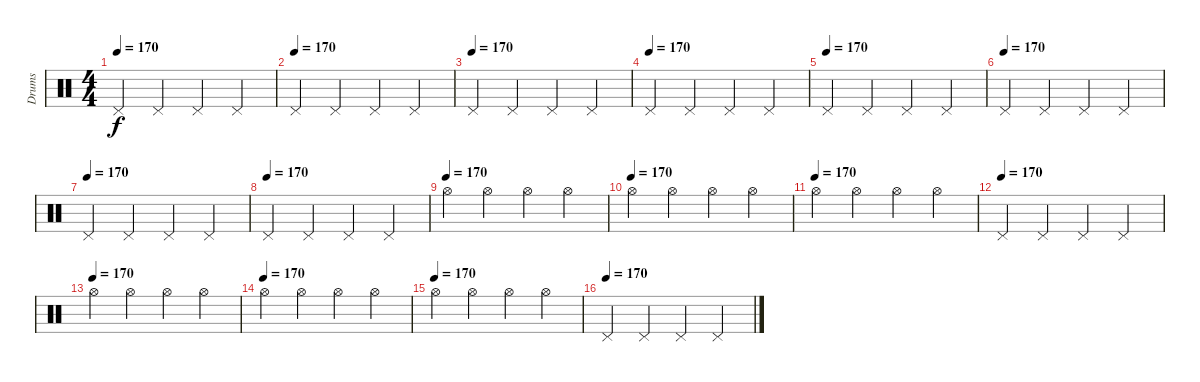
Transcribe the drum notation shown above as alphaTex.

\track ("Drums" "Drums") {instrument percussion}
\staff {score}
\articulation defaults
\ts (4 4)
\tempo 170
\clef neutral
\ks c "Pedal Hi-Hat (hit)".4{dy f} "Pedal Hi-Hat (hit)".4 "Pedal Hi-Hat (hit)".4 "Pedal Hi-Hat (hit)".4
|
\tempo (170)
"Pedal Hi-Hat (hit)".4 "Pedal Hi-Hat (hit)".4 "Pedal Hi-Hat (hit)".4 "Pedal Hi-Hat (hit)".4 |
\tempo (170)
"Pedal Hi-Hat (hit)".4 "Pedal Hi-Hat (hit)".4 "Pedal Hi-Hat (hit)".4 "Pedal Hi-Hat (hit)".4 |
\tempo (170)
"Pedal Hi-Hat (hit)".4 "Pedal Hi-Hat (hit)".4 "Pedal Hi-Hat (hit)".4 "Pedal Hi-Hat (hit)".4 |
\tempo (170)
"Pedal Hi-Hat (hit)".4 "Pedal Hi-Hat (hit)".4 "Pedal Hi-Hat (hit)".4 "Pedal Hi-Hat (hit)".4 |
\tempo (170)
"Pedal Hi-Hat (hit)".4 "Pedal Hi-Hat (hit)".4 "Pedal Hi-Hat (hit)".4 "Pedal Hi-Hat (hit)".4 |
\tempo (170)
"Pedal Hi-Hat (hit)".4 "Pedal Hi-Hat (hit)".4 "Pedal Hi-Hat (hit)".4 "Pedal Hi-Hat (hit)".4 |
\tempo (170)
"Pedal Hi-Hat (hit)".4 "Pedal Hi-Hat (hit)".4 "Pedal Hi-Hat (hit)".4 "Pedal Hi-Hat (hit)".4 |
\tempo (170)
"Hi-Hat (open)".4 "Hi-Hat (open)".4 "Hi-Hat (open)".4 "Hi-Hat (open)".4 |
\tempo (170)
"Hi-Hat (open)".4 "Hi-Hat (open)".4 "Hi-Hat (open)".4 "Hi-Hat (open)".4 |
\tempo (170)
"Hi-Hat (open)".4 "Hi-Hat (open)".4 "Hi-Hat (open)".4 "Hi-Hat (open)".4 |
\tempo (170)
"Pedal Hi-Hat (hit)".4 "Pedal Hi-Hat (hit)".4 "Pedal Hi-Hat (hit)".4 "Pedal Hi-Hat (hit)".4 |
\tempo (170)
"Hi-Hat (open)".4 "Hi-Hat (open)".4 "Hi-Hat (open)".4 "Hi-Hat (open)".4 |
\tempo (170)
"Hi-Hat (open)".4 "Hi-Hat (open)".4 "Hi-Hat (open)".4 "Hi-Hat (open)".4 |
\tempo (170)
"Hi-Hat (open)".4 "Hi-Hat (open)".4 "Hi-Hat (open)".4 "Hi-Hat (open)".4 |
\tempo (170)
"Pedal Hi-Hat (hit)".4 "Pedal Hi-Hat (hit)".4 "Pedal Hi-Hat (hit)".4 "Pedal Hi-Hat (hit)".4
